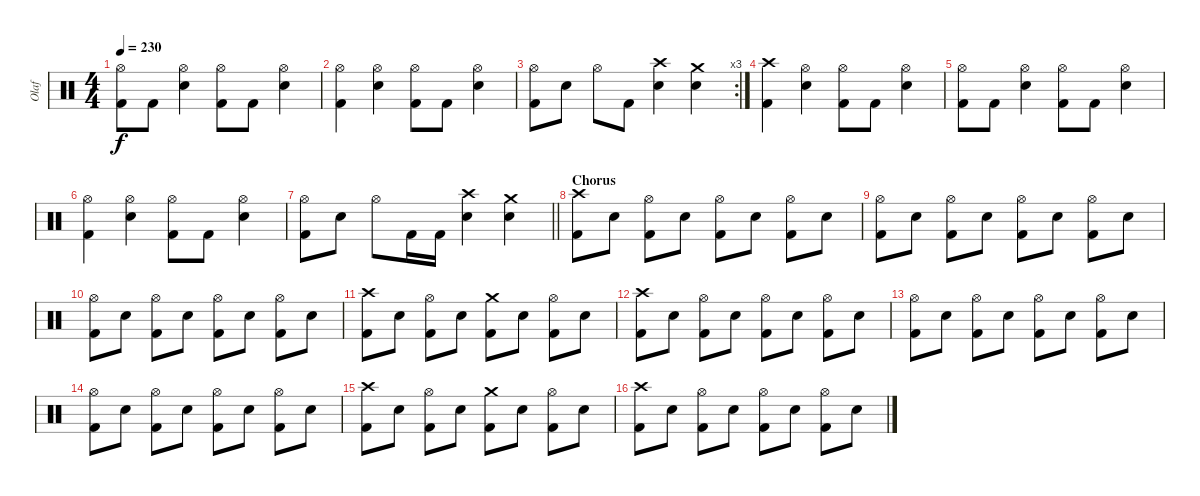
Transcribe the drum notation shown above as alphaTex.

\track ("Olaf" "Olaf") {instrument percussion}
\staff {score}
\articulation defaults
\ts (4 4)
\tempo 230
\clef neutral
\ks c
("Hi-Hat (open)" "Kick (hit) 2").8{dy f} "Kick (hit) 2".8 ("Hi-Hat (open)" "Electric Snare (hit)").4 ("Hi-Hat (open)" "Kick (hit) 2").8 "Kick (hit) 2".8 ("Hi-Hat (open)" "Electric Snare (hit)").4 |
("Hi-Hat (open)" "Kick (hit) 2").4 ("Hi-Hat (open)" "Electric Snare (hit)").4 ("Hi-Hat (open)" "Kick (hit) 2").8 "Kick (hit) 2".8 ("Hi-Hat (open)" "Electric Snare (hit)").4 |
\rc 3
("Hi-Hat (open)" "Kick (hit) 2").8 "Electric Snare (hit)".8 "Hi-Hat (open)".8 "Kick (hit) 2".8 ("Crash high (hit)" "Electric Snare (hit)").4 ("Crash medium (hit)" "Electric Snare (hit)").4 |
("Crash high (hit)" "Kick (hit) 2").4 ("Hi-Hat (open)" "Electric Snare (hit)").4 ("Hi-Hat (open)" "Kick (hit) 2").8 "Kick (hit) 2".8 ("Hi-Hat (open)" "Electric Snare (hit)").4 |
("Hi-Hat (open)" "Kick (hit) 2").8 "Kick (hit) 2".8 ("Hi-Hat (open)" "Electric Snare (hit)").4 ("Hi-Hat (open)" "Kick (hit) 2").8 "Kick (hit) 2".8 ("Hi-Hat (open)" "Electric Snare (hit)").4 |
("Hi-Hat (open)" "Kick (hit) 2").4 ("Hi-Hat (open)" "Electric Snare (hit)").4 ("Hi-Hat (open)" "Kick (hit) 2").8 "Kick (hit) 2".8 ("Hi-Hat (open)" "Electric Snare (hit)").4 |
\barLineRight lightlight
("Hi-Hat (open)" "Kick (hit) 2").8 "Electric Snare (hit)".8 "Hi-Hat (open)".8 "Kick (hit) 2".16 "Kick (hit) 2".16 ("Crash high (hit)" "Electric Snare (hit)").4 ("Crash medium (hit)" "Electric Snare (hit)").4 |
\section ("" "Chorus")
("Crash high (hit)" "Kick (hit) 2").8 "Electric Snare (hit)".8 ("Hi-Hat (open)" "Kick (hit) 2").8 "Electric Snare (hit)".8 ("Hi-Hat (open)" "Kick (hit) 2").8 "Electric Snare (hit)".8 ("Hi-Hat (open)" "Kick (hit) 2").8 "Electric Snare (hit)".8 |
("Hi-Hat (open)" "Kick (hit) 2").8 "Electric Snare (hit)".8 ("Hi-Hat (open)" "Kick (hit) 2").8 "Electric Snare (hit)".8 ("Hi-Hat (open)" "Kick (hit) 2").8 "Electric Snare (hit)".8 ("Hi-Hat (open)" "Kick (hit) 2").8 "Electric Snare (hit)".8 |
("Hi-Hat (open)" "Kick (hit) 2").8 "Electric Snare (hit)".8 ("Hi-Hat (open)" "Kick (hit) 2").8 "Electric Snare (hit)".8 ("Hi-Hat (open)" "Kick (hit) 2").8 "Electric Snare (hit)".8 ("Hi-Hat (open)" "Kick (hit) 2").8 "Electric Snare (hit)".8 |
("Crash high (hit)" "Kick (hit) 2").8 "Electric Snare (hit)".8 ("Hi-Hat (open)" "Kick (hit) 2").8 "Electric Snare (hit)".8 ("Crash medium (hit)" "Kick (hit) 2").8 "Electric Snare (hit)".8 ("Hi-Hat (open)" "Kick (hit) 2").8 "Electric Snare (hit)".8 |
("Crash high (hit)" "Kick (hit) 2").8 "Electric Snare (hit)".8 ("Hi-Hat (open)" "Kick (hit) 2").8 "Electric Snare (hit)".8 ("Hi-Hat (open)" "Kick (hit) 2").8 "Electric Snare (hit)".8 ("Hi-Hat (open)" "Kick (hit) 2").8 "Electric Snare (hit)".8 |
("Hi-Hat (open)" "Kick (hit) 2").8 "Electric Snare (hit)".8 ("Hi-Hat (open)" "Kick (hit) 2").8 "Electric Snare (hit)".8 ("Hi-Hat (open)" "Kick (hit) 2").8 "Electric Snare (hit)".8 ("Hi-Hat (open)" "Kick (hit) 2").8 "Electric Snare (hit)".8 |
("Hi-Hat (open)" "Kick (hit) 2").8 "Electric Snare (hit)".8 ("Hi-Hat (open)" "Kick (hit) 2").8 "Electric Snare (hit)".8 ("Hi-Hat (open)" "Kick (hit) 2").8 "Electric Snare (hit)".8 ("Hi-Hat (open)" "Kick (hit) 2").8 "Electric Snare (hit)".8 |
("Crash high (hit)" "Kick (hit) 2").8 "Electric Snare (hit)".8 ("Hi-Hat (open)" "Kick (hit) 2").8 "Electric Snare (hit)".8 ("Crash medium (hit)" "Kick (hit) 2").8 "Electric Snare (hit)".8 ("Hi-Hat (open)" "Kick (hit) 2").8 "Electric Snare (hit)".8 |
("Crash high (hit)" "Kick (hit) 2").8 "Electric Snare (hit)".8 ("Hi-Hat (open)" "Kick (hit) 2").8 "Electric Snare (hit)".8 ("Hi-Hat (open)" "Kick (hit) 2").8 "Electric Snare (hit)".8 ("Hi-Hat (open)" "Kick (hit) 2").8 "Electric Snare (hit)".8
